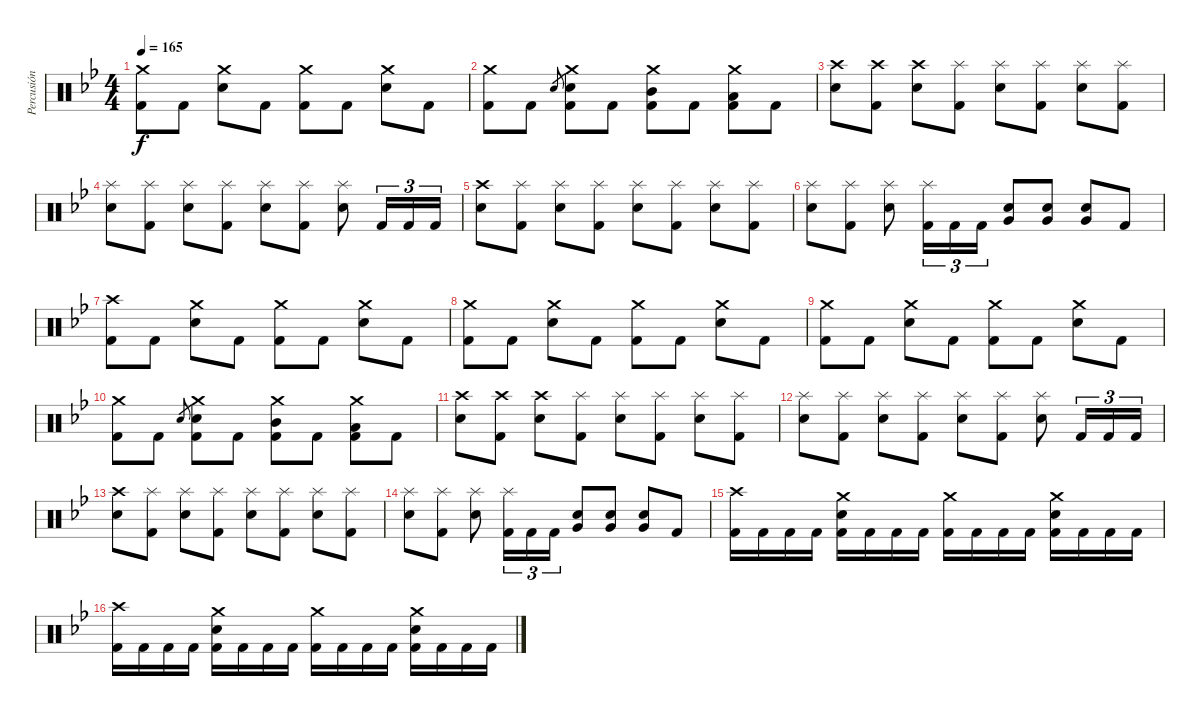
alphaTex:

\track ("Percusión" "Percusión") {instrument percussion}
\staff {score}
\articulation defaults
\ts (4 4)
\tempo 165
\clef neutral
\ks bb
("Crash medium (hit)" "Kick (hit) 2").8{dy f} "Kick (hit) 2".8 ("Crash medium (hit)" "Electric Snare (hit)").8 "Kick (hit) 2".8 ("Crash medium (hit)" "Kick (hit) 2").8 "Kick (hit) 2".8 ("Crash medium (hit)" "Electric Snare (hit)").8 "Kick (hit) 2".8 |
("Crash medium (hit)" "Kick (hit) 2").8 "Kick (hit) 2".8 "Electric Snare (hit)".8{gr} ("Crash medium (hit)" "Electric Snare (hit)" "Kick (hit) 2").8 "Kick (hit) 2".8 ("Crash medium (hit)" "Mid Tom (hit)" "Kick (hit) 2").8 "Kick (hit) 2".8 ("Crash medium (hit)" "Low Tom (hit)" "Kick (hit) 2").8 "Kick (hit) 2".8 |
("Crash high (hit)" "Electric Snare (hit)").8 ("Crash high (hit)" "Kick (hit) 2").8 ("Crash high (hit)" "Electric Snare (hit)").8 ("Splash (hit)" "Kick (hit) 2").8 ("Splash (hit)" "Electric Snare (hit)").8 ("Splash (hit)" "Kick (hit) 2").8 ("Splash (hit)" "Electric Snare (hit)").8 ("Splash (hit)" "Kick (hit) 2").8 |
("Splash (hit)" "Electric Snare (hit)").8 ("Splash (hit)" "Kick (hit) 2").8 ("Splash (hit)" "Electric Snare (hit)").8 ("Splash (hit)" "Kick (hit) 2").8 ("Splash (hit)" "Electric Snare (hit)").8 ("Splash (hit)" "Kick (hit) 2").8 ("Splash (hit)" "Electric Snare (hit)").8 "Kick (hit) 2".16{tu (3 2)} "Kick (hit) 2".16{tu (3 2)} "Kick (hit) 2".16{tu (3 2)} |
("Crash high (hit)" "Electric Snare (hit)").8 ("Splash (hit)" "Kick (hit) 2").8 ("Splash (hit)" "Electric Snare (hit)").8 ("Splash (hit)" "Kick (hit) 2").8 ("Splash (hit)" "Electric Snare (hit)").8 ("Splash (hit)" "Kick (hit) 2").8 ("Splash (hit)" "Electric Snare (hit)").8 ("Splash (hit)" "Kick (hit) 2").8 |
("Splash (hit)" "Electric Snare (hit)").8 ("Splash (hit)" "Kick (hit) 2").8 ("Splash (hit)" "Electric Snare (hit)").8 ("Splash (hit)" "Kick (hit) 2").16{tu (3 2)} "Kick (hit) 2".16{tu (3 2)} "Kick (hit) 2".16{tu (3 2)} ("Electric Snare (hit)" "Very Low Tom (hit)").8 ("Electric Snare (hit)" "Very Low Tom (hit)").8 ("Electric Snare (hit)" "Very Low Tom (hit)").8 "Kick (hit) 2".8 |
("Crash high (hit)" "Kick (hit) 2").8 "Kick (hit) 2".8 ("Crash medium (hit)" "Electric Snare (hit)").8 "Kick (hit) 2".8 ("Crash medium (hit)" "Kick (hit) 2").8 "Kick (hit) 2".8 ("Crash medium (hit)" "Electric Snare (hit)").8 "Kick (hit) 2".8 |
("Crash medium (hit)" "Kick (hit) 2").8 "Kick (hit) 2".8 ("Crash medium (hit)" "Electric Snare (hit)").8 "Kick (hit) 2".8 ("Crash medium (hit)" "Kick (hit) 2").8 "Kick (hit) 2".8 ("Crash medium (hit)" "Electric Snare (hit)").8 "Kick (hit) 2".8 |
("Crash medium (hit)" "Kick (hit) 2").8 "Kick (hit) 2".8 ("Crash medium (hit)" "Electric Snare (hit)").8 "Kick (hit) 2".8 ("Crash medium (hit)" "Kick (hit) 2").8 "Kick (hit) 2".8 ("Crash medium (hit)" "Electric Snare (hit)").8 "Kick (hit) 2".8 |
("Crash medium (hit)" "Kick (hit) 2").8 "Kick (hit) 2".8 "Electric Snare (hit)".8{gr} ("Crash medium (hit)" "Electric Snare (hit)" "Kick (hit) 2").8 "Kick (hit) 2".8 ("Crash medium (hit)" "Mid Tom (hit)" "Kick (hit) 2").8 "Kick (hit) 2".8 ("Crash medium (hit)" "Low Tom (hit)" "Kick (hit) 2").8 "Kick (hit) 2".8 |
("Crash high (hit)" "Electric Snare (hit)").8 ("Crash high (hit)" "Kick (hit) 2").8 ("Crash high (hit)" "Electric Snare (hit)").8 ("Splash (hit)" "Kick (hit) 2").8 ("Splash (hit)" "Electric Snare (hit)").8 ("Splash (hit)" "Kick (hit) 2").8 ("Splash (hit)" "Electric Snare (hit)").8 ("Splash (hit)" "Kick (hit) 2").8 |
("Splash (hit)" "Electric Snare (hit)").8 ("Splash (hit)" "Kick (hit) 2").8 ("Splash (hit)" "Electric Snare (hit)").8 ("Splash (hit)" "Kick (hit) 2").8 ("Splash (hit)" "Electric Snare (hit)").8 ("Splash (hit)" "Kick (hit) 2").8 ("Splash (hit)" "Electric Snare (hit)").8 "Kick (hit) 2".16{tu (3 2)} "Kick (hit) 2".16{tu (3 2)} "Kick (hit) 2".16{tu (3 2)} |
("Crash high (hit)" "Electric Snare (hit)").8 ("Splash (hit)" "Kick (hit) 2").8 ("Splash (hit)" "Electric Snare (hit)").8 ("Splash (hit)" "Kick (hit) 2").8 ("Splash (hit)" "Electric Snare (hit)").8 ("Splash (hit)" "Kick (hit) 2").8 ("Splash (hit)" "Electric Snare (hit)").8 ("Splash (hit)" "Kick (hit) 2").8 |
("Splash (hit)" "Electric Snare (hit)").8 ("Splash (hit)" "Kick (hit) 2").8 ("Splash (hit)" "Electric Snare (hit)").8 ("Splash (hit)" "Kick (hit) 2").16{tu (3 2)} "Kick (hit) 2".16{tu (3 2)} "Kick (hit) 2".16{tu (3 2)} ("Electric Snare (hit)" "Very Low Tom (hit)").8 ("Electric Snare (hit)" "Very Low Tom (hit)").8 ("Electric Snare (hit)" "Very Low Tom (hit)").8 "Kick (hit) 2".8 |
("Crash high (hit)" "Kick (hit) 2").16 "Kick (hit) 2".16 "Kick (hit) 2".16 "Kick (hit) 2".16 ("Crash medium (hit)" "Electric Snare (hit)" "Kick (hit) 2").16 "Kick (hit) 2".16 "Kick (hit) 2".16 "Kick (hit) 2".16 ("Crash medium (hit)" "Kick (hit) 2").16 "Kick (hit) 2".16 "Kick (hit) 2".16 "Kick (hit) 2".16 ("Crash medium (hit)" "Electric Snare (hit)" "Kick (hit) 2").16 "Kick (hit) 2".16 "Kick (hit) 2".16 "Kick (hit) 2".16 |
("Crash high (hit)" "Kick (hit) 2").16 "Kick (hit) 2".16 "Kick (hit) 2".16 "Kick (hit) 2".16 ("Crash medium (hit)" "Electric Snare (hit)" "Kick (hit) 2").16 "Kick (hit) 2".16 "Kick (hit) 2".16 "Kick (hit) 2".16 ("Crash medium (hit)" "Kick (hit) 2").16 "Kick (hit) 2".16 "Kick (hit) 2".16 "Kick (hit) 2".16 ("Crash medium (hit)" "Electric Snare (hit)" "Kick (hit) 2").16 "Kick (hit) 2".16 "Kick (hit) 2".16 "Kick (hit) 2".16
